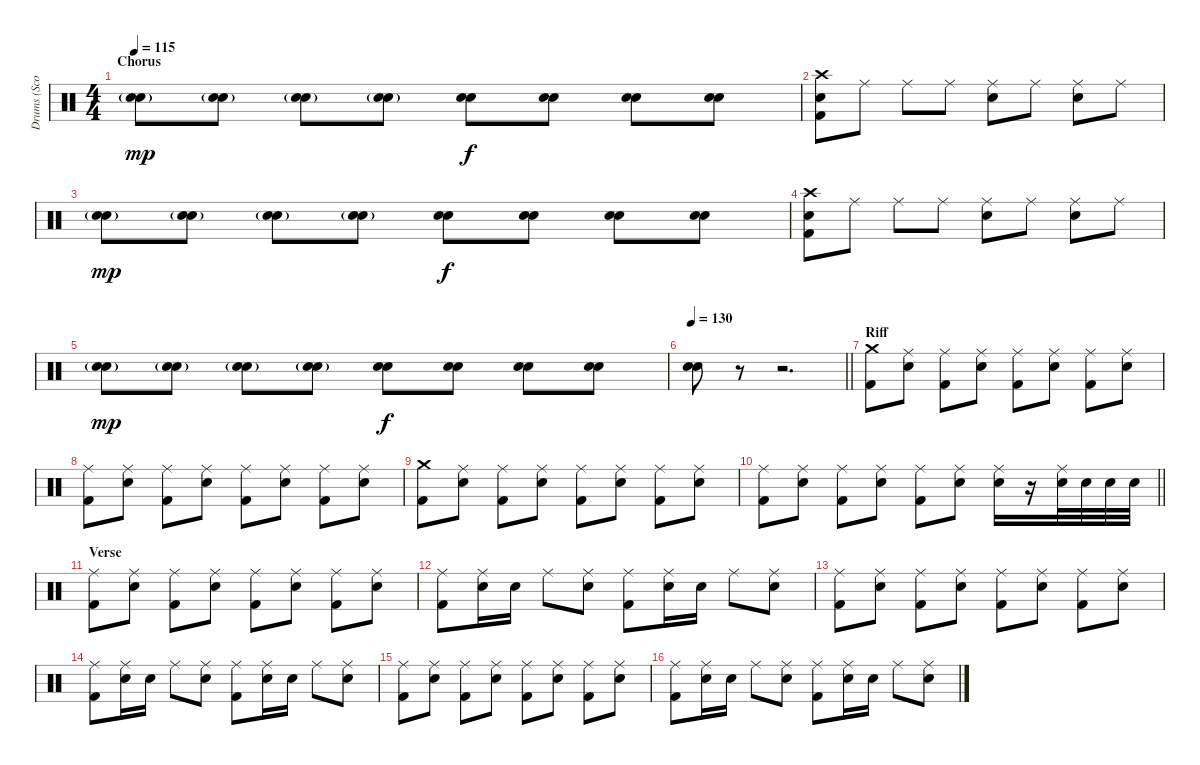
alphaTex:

\track ("Drums (Scott Raynor)" "Drums (Sco") {instrument percussion}
\staff {score}
\articulation defaults
\ts (4 4)
\section ("" "Chorus")
\tempo 115
\clef neutral
\ks c
("Snare (hit) 2"{g} "Snare (hit) 2"{g}).8{dy mp} ("Snare (hit) 2"{g} "Snare (hit) 2"{g}).8 ("Snare (hit) 2" "Snare (hit) 2"{g}).8 ("Snare (hit) 2" "Snare (hit) 2"{g}).8 ("Snare (hit) 2" "Snare (hit) 2").8{dy f} ("Snare (hit) 2" "Snare (hit) 2").8 ("Snare (hit) 2" "Snare (hit) 2").8 ("Snare (hit) 2" "Snare (hit) 2").8 |
("Crash high (hit)" "Snare (hit) 2" "Kick (hit) 2").8 "Ride (middle)".8 "Ride (middle)".8 "Ride (middle)".8 ("Ride (middle)" "Snare (hit) 2").8 "Ride (middle)".8 ("Ride (middle)" "Snare (hit) 2").8 "Ride (middle)".8 |
("Snare (hit) 2"{g} "Snare (hit) 2"{g}).8{dy mp} ("Snare (hit) 2"{g} "Snare (hit) 2"{g}).8 ("Snare (hit) 2" "Snare (hit) 2"{g}).8 ("Snare (hit) 2" "Snare (hit) 2"{g}).8 ("Snare (hit) 2" "Snare (hit) 2").8{dy f} ("Snare (hit) 2" "Snare (hit) 2").8 ("Snare (hit) 2" "Snare (hit) 2").8 ("Snare (hit) 2" "Snare (hit) 2").8 |
("Crash high (hit)" "Snare (hit) 2" "Kick (hit) 2").8 "Ride (middle)".8 "Ride (middle)".8 "Ride (middle)".8 ("Ride (middle)" "Snare (hit) 2").8 "Ride (middle)".8 ("Ride (middle)" "Snare (hit) 2").8 "Ride (middle)".8 |
("Snare (hit) 2"{g} "Snare (hit) 2"{g}).8{dy mp} ("Snare (hit) 2"{g} "Snare (hit) 2"{g}).8 ("Snare (hit) 2" "Snare (hit) 2"{g}).8 ("Snare (hit) 2" "Snare (hit) 2"{g}).8 ("Snare (hit) 2" "Snare (hit) 2").8{dy f} ("Snare (hit) 2" "Snare (hit) 2").8 ("Snare (hit) 2" "Snare (hit) 2").8 ("Snare (hit) 2" "Snare (hit) 2").8 |
\tempo 130
\barLineRight lightlight
("Snare (hit) 2" "Snare (hit) 2").8 r.8 r.2{d} |
\section ("" "Riff")
("Crash medium (hit)" "Kick (hit) 2").8 ("Ride (middle)" "Snare (hit) 2").8 ("Ride (middle)" "Kick (hit) 2").8 ("Ride (middle)" "Snare (hit) 2").8 ("Ride (middle)" "Kick (hit) 2").8 ("Ride (middle)" "Snare (hit) 2").8 ("Ride (middle)" "Kick (hit) 2").8 ("Ride (middle)" "Snare (hit) 2").8 |
("Ride (middle)" "Kick (hit) 2").8 ("Ride (middle)" "Snare (hit) 2").8 ("Ride (middle)" "Kick (hit) 2").8 ("Ride (middle)" "Snare (hit) 2").8 ("Ride (middle)" "Kick (hit) 2").8 ("Ride (middle)" "Snare (hit) 2").8 ("Ride (middle)" "Kick (hit) 2").8 ("Ride (middle)" "Snare (hit) 2").8 |
("Crash medium (hit)" "Kick (hit) 2").8 ("Ride (middle)" "Snare (hit) 2").8 ("Ride (middle)" "Kick (hit) 2").8 ("Ride (middle)" "Snare (hit) 2").8 ("Ride (middle)" "Kick (hit) 2").8 ("Ride (middle)" "Snare (hit) 2").8 ("Ride (middle)" "Kick (hit) 2").8 ("Ride (middle)" "Snare (hit) 2").8 |
\barLineRight lightlight
("Ride (middle)" "Kick (hit) 2").8 ("Ride (middle)" "Snare (hit) 2").8 ("Ride (middle)" "Kick (hit) 2").8 ("Ride (middle)" "Snare (hit) 2").8 ("Ride (middle)" "Kick (hit) 2").8 ("Ride (middle)" "Snare (hit) 2").8 ("Ride (middle)" "Snare (hit) 2").16 r.16 ("Ride (middle)" "Snare (hit) 2").32 "Snare (hit) 2".32 "Snare (hit) 2".32 "Snare (hit) 2".32 |
\section ("" "Verse")
("Ride (middle)" "Kick (hit) 2").8 ("Ride (middle)" "Snare (hit) 2").8 ("Ride (middle)" "Kick (hit) 2").8 ("Ride (middle)" "Snare (hit) 2").8 ("Ride (middle)" "Kick (hit) 2").8 ("Ride (middle)" "Snare (hit) 2").8 ("Ride (middle)" "Kick (hit) 2").8 ("Ride (middle)" "Snare (hit) 2").8 |
("Ride (middle)" "Kick (hit) 2").8 ("Ride (middle)" "Snare (hit) 2").16 "Snare (hit) 2".16 "Ride (middle)".8 ("Ride (middle)" "Snare (hit) 2").8 ("Ride (middle)" "Kick (hit) 2").8 ("Ride (middle)" "Snare (hit) 2").16 "Snare (hit) 2".16 "Ride (middle)".8 ("Ride (middle)" "Snare (hit) 2").8 |
("Ride (middle)" "Kick (hit) 2").8 ("Ride (middle)" "Snare (hit) 2").8 ("Ride (middle)" "Kick (hit) 2").8 ("Ride (middle)" "Snare (hit) 2").8 ("Ride (middle)" "Kick (hit) 2").8 ("Ride (middle)" "Snare (hit) 2").8 ("Ride (middle)" "Kick (hit) 2").8 ("Ride (middle)" "Snare (hit) 2").8 |
("Ride (middle)" "Kick (hit) 2").8 ("Ride (middle)" "Snare (hit) 2").16 "Snare (hit) 2".16 "Ride (middle)".8 ("Ride (middle)" "Snare (hit) 2").8 ("Ride (middle)" "Kick (hit) 2").8 ("Ride (middle)" "Snare (hit) 2").16 "Snare (hit) 2".16 "Ride (middle)".8 ("Ride (middle)" "Snare (hit) 2").8 |
("Ride (middle)" "Kick (hit) 2").8 ("Ride (middle)" "Snare (hit) 2").8 ("Ride (middle)" "Kick (hit) 2").8 ("Ride (middle)" "Snare (hit) 2").8 ("Ride (middle)" "Kick (hit) 2").8 ("Ride (middle)" "Snare (hit) 2").8 ("Ride (middle)" "Kick (hit) 2").8 ("Ride (middle)" "Snare (hit) 2").8 |
("Ride (middle)" "Kick (hit) 2").8 ("Ride (middle)" "Snare (hit) 2").16 "Snare (hit) 2".16 "Ride (middle)".8 ("Ride (middle)" "Snare (hit) 2").8 ("Ride (middle)" "Kick (hit) 2").8 ("Ride (middle)" "Snare (hit) 2").16 "Snare (hit) 2".16 "Ride (middle)".8 ("Ride (middle)" "Snare (hit) 2").8
